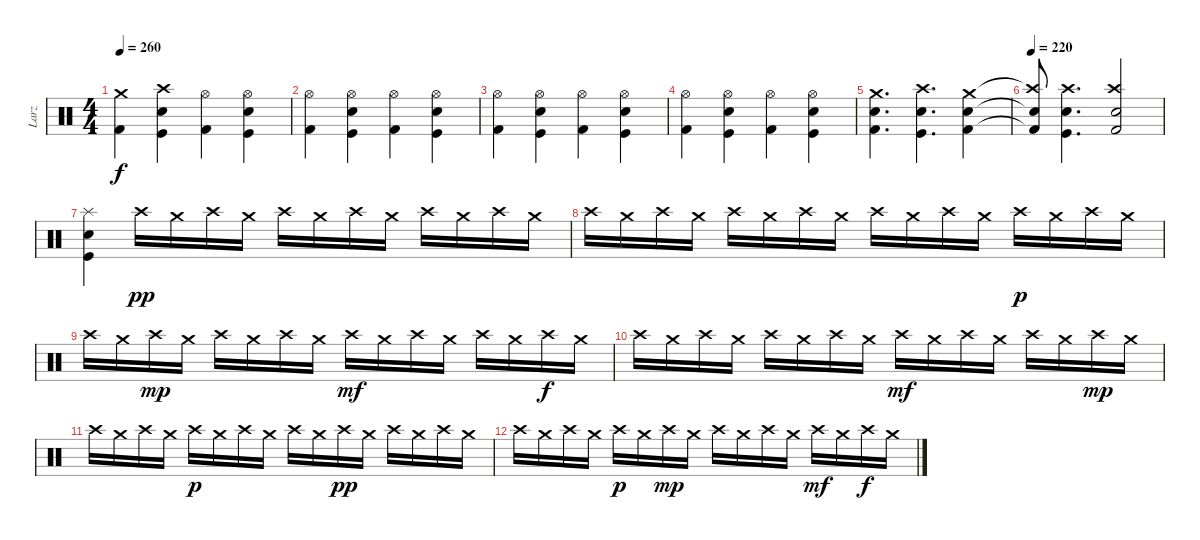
\track ("Larz" "Larz") {instrument percussion}
\staff {score}
\articulation defaults
\ts (4 4)
\tempo 260
\clef neutral
\ks c
("Crash medium (hit)" "Kick (hit) 2").4{dy f} ("Crash high (hit)" "Kick (hit)" "Electric Snare (hit)").4 ("Hi-Hat (open)" "Kick (hit) 2").4 ("Hi-Hat (open)" "Kick (hit)" "Electric Snare (hit)").4 |
("Hi-Hat (open)" "Kick (hit) 2").4 ("Hi-Hat (open)" "Kick (hit)" "Electric Snare (hit)").4 ("Hi-Hat (open)" "Kick (hit) 2").4 ("Hi-Hat (open)" "Kick (hit)" "Electric Snare (hit)").4 |
("Hi-Hat (open)" "Kick (hit) 2").4 ("Hi-Hat (open)" "Kick (hit)" "Electric Snare (hit)").4 ("Hi-Hat (open)" "Kick (hit) 2").4 ("Hi-Hat (open)" "Kick (hit)" "Electric Snare (hit)").4 |
("Hi-Hat (open)" "Kick (hit) 2").4 ("Hi-Hat (open)" "Kick (hit)" "Electric Snare (hit)").4 ("Hi-Hat (open)" "Kick (hit) 2").4 ("Hi-Hat (open)" "Kick (hit)" "Electric Snare (hit)").4 |
("Crash medium (hit)" "Kick (hit) 2" "Electric Snare (hit)").4{d} ("Crash high (hit)" "Kick (hit)" "Electric Snare (hit)").4{d} ("Crash medium (hit)" "Kick (hit) 2" "Electric Snare (hit)").4 |
\tempo 220
("Crash high (hit)"{t} "Kick (hit) 2"{t} "Electric Snare (hit)"{t}).8 ("Crash high (hit)" "Kick (hit)" "Electric Snare (hit)").4{d} ("Crash high (hit)" "Kick (hit) 2" "Electric Snare (hit)").2 |
("Splash (hit)" "Kick (hit)" "Electric Snare (hit)").4 "Crash high (hit)".16{dy pp} "Crash medium (hit)".16 "Crash high (hit)".16 "Crash medium (hit)".16 "Crash high (hit)".16 "Crash medium (hit)".16 "Crash high (hit)".16 "Crash medium (hit)".16 "Crash high (hit)".16 "Crash medium (hit)".16 "Crash high (hit)".16 "Crash medium (hit)".16 |
"Crash high (hit)".16 "Crash medium (hit)".16 "Crash high (hit)".16 "Crash medium (hit)".16 "Crash high (hit)".16 "Crash medium (hit)".16 "Crash high (hit)".16 "Crash medium (hit)".16 "Crash high (hit)".16 "Crash medium (hit)".16 "Crash high (hit)".16 "Crash medium (hit)".16 "Crash high (hit)".16{dy p} "Crash medium (hit)".16 "Crash high (hit)".16 "Crash medium (hit)".16 |
"Crash high (hit)".16 "Crash medium (hit)".16 "Crash high (hit)".16{dy mp} "Crash medium (hit)".16 "Crash high (hit)".16 "Crash medium (hit)".16 "Crash high (hit)".16 "Crash medium (hit)".16 "Crash high (hit)".16{dy mf} "Crash medium (hit)".16 "Crash high (hit)".16 "Crash medium (hit)".16 "Crash high (hit)".16 "Crash medium (hit)".16 "Crash high (hit)".16{dy f} "Crash medium (hit)".16 |
"Crash high (hit)".16 "Crash medium (hit)".16 "Crash high (hit)".16 "Crash medium (hit)".16 "Crash high (hit)".16 "Crash medium (hit)".16 "Crash high (hit)".16 "Crash medium (hit)".16 "Crash high (hit)".16{dy mf} "Crash medium (hit)".16 "Crash high (hit)".16 "Crash medium (hit)".16 "Crash high (hit)".16 "Crash medium (hit)".16 "Crash high (hit)".16{dy mp} "Crash medium (hit)".16 |
"Crash high (hit)".16 "Crash medium (hit)".16 "Crash high (hit)".16 "Crash medium (hit)".16 "Crash high (hit)".16{dy p} "Crash medium (hit)".16 "Crash high (hit)".16 "Crash medium (hit)".16 "Crash high (hit)".16 "Crash medium (hit)".16 "Crash high (hit)".16{dy pp} "Crash medium (hit)".16 "Crash high (hit)".16 "Crash medium (hit)".16 "Crash high (hit)".16 "Crash medium (hit)".16 |
"Crash high (hit)".16 "Crash medium (hit)".16 "Crash high (hit)".16 "Crash medium (hit)".16 "Crash high (hit)".16{dy p} "Crash medium (hit)".16 "Crash high (hit)".16{dy mp} "Crash medium (hit)".16 "Crash high (hit)".16 "Crash medium (hit)".16 "Crash high (hit)".16 "Crash medium (hit)".16 "Crash high (hit)".16{dy mf} "Crash medium (hit)".16 "Crash high (hit)".16{dy f} "Crash medium (hit)".16
